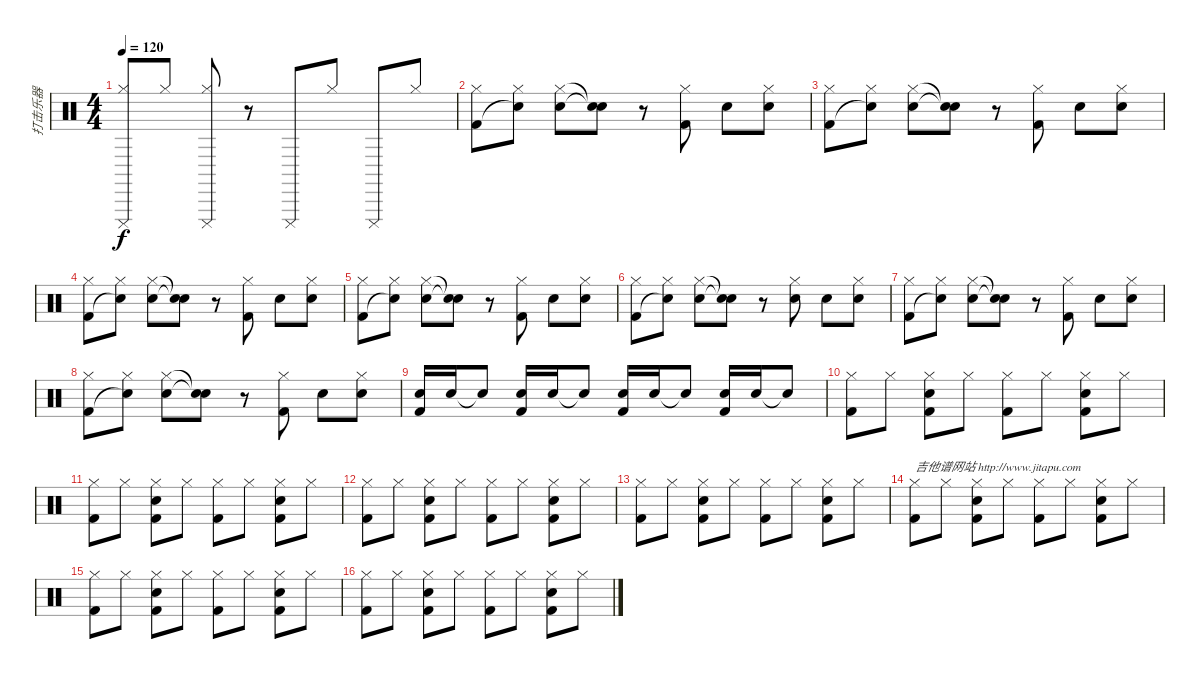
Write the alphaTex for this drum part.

\track ("打击乐器" "打击乐器") {instrument percussion}
\staff {score}
\articulation defaults
\ts (4 4)
\tempo 120
\clef neutral
\ks c
("Hi-Hat (closed)" "Cuica (mute)").8{dy f} "Hi-Hat (closed)".8 ("Hi-Hat (closed)" "Cuica (mute)").8 r.8 "Cuica (mute)".8 "Hi-Hat (closed)".8 "Cuica (mute)".8 "Hi-Hat (closed)".8 |
("Hi-Hat (closed)" "Kick (hit) 2").8 ("Hi-Hat (closed)" "Snare (hit)"{t}).8 ("Hi-Hat (closed)" "Snare (hit) 2").8 ("Snare (hit)"{t} "Snare (hit)"{t}).8 r.8 ("Hi-Hat (closed)" "Kick (hit) 2").8 "Snare (hit) 2".8 ("Hi-Hat (closed)" "Snare (hit) 2").8 |
("Hi-Hat (closed)" "Kick (hit) 2").8 ("Hi-Hat (closed)" "Snare (hit)"{t}).8 ("Hi-Hat (closed)" "Snare (hit) 2").8 ("Snare (hit)"{t} "Snare (hit)"{t}).8 r.8 ("Hi-Hat (closed)" "Kick (hit) 2").8 "Snare (hit) 2".8 ("Hi-Hat (closed)" "Snare (hit) 2").8 |
("Hi-Hat (closed)" "Kick (hit) 2").8 ("Hi-Hat (closed)" "Snare (hit)"{t}).8 ("Hi-Hat (closed)" "Snare (hit) 2").8 ("Snare (hit)"{t} "Snare (hit)"{t}).8 r.8 ("Hi-Hat (closed)" "Kick (hit) 2").8 "Snare (hit) 2".8 ("Hi-Hat (closed)" "Snare (hit) 2").8 |
("Hi-Hat (closed)" "Kick (hit) 2").8 ("Hi-Hat (closed)" "Snare (hit)"{t}).8 ("Hi-Hat (closed)" "Snare (hit) 2").8 ("Snare (hit)"{t} "Snare (hit)"{t}).8 r.8 ("Hi-Hat (closed)" "Kick (hit) 2").8 "Snare (hit) 2".8 ("Hi-Hat (closed)" "Snare (hit) 2").8 |
("Hi-Hat (closed)" "Kick (hit) 2").8 ("Hi-Hat (closed)" "Snare (hit)"{t}).8 ("Hi-Hat (closed)" "Snare (hit) 2").8 ("Snare (hit)"{t} "Snare (hit)"{t}).8 r.8 ("Hi-Hat (closed)" "Snare (hit) 2").8 "Snare (hit) 2".8 ("Hi-Hat (closed)" "Snare (hit) 2").8 |
("Hi-Hat (closed)" "Kick (hit) 2").8 ("Hi-Hat (closed)" "Snare (hit)"{t}).8 ("Hi-Hat (closed)" "Snare (hit) 2").8 ("Snare (hit)"{t} "Snare (hit)"{t}).8 r.8 ("Hi-Hat (closed)" "Kick (hit) 2").8 "Snare (hit) 2".8 ("Hi-Hat (closed)" "Snare (hit) 2").8 |
("Hi-Hat (closed)" "Kick (hit) 2").8 ("Hi-Hat (closed)" "Snare (hit)"{t}).8 ("Hi-Hat (closed)" "Snare (hit) 2").8 ("Snare (hit)"{t} "Snare (hit)"{t}).8 r.8 ("Hi-Hat (closed)" "Kick (hit) 2").8 "Snare (hit) 2".8 ("Hi-Hat (closed)" "Snare (hit) 2").8 |
("Snare (hit) 2" "Kick (hit) 2").16 "Snare (hit) 2".16 "Snare (hit) 2"{t}.8 ("Snare (hit) 2" "Kick (hit) 2").16 "Snare (hit) 2".16 "Snare (hit) 2"{t}.8 ("Snare (hit) 2" "Kick (hit) 2").16 "Snare (hit) 2".16 "Snare (hit) 2"{t}.8 ("Snare (hit) 2" "Kick (hit) 2").16 "Snare (hit) 2".16 "Snare (hit) 2"{t}.8 |
("Hi-Hat (closed)" "Kick (hit) 2").8 "Hi-Hat (closed)".8 ("Hi-Hat (closed)" "Snare (hit) 2" "Kick (hit) 2").8 "Hi-Hat (closed)".8 ("Hi-Hat (closed)" "Kick (hit) 2").8 "Hi-Hat (closed)".8 ("Hi-Hat (closed)" "Snare (hit) 2" "Kick (hit) 2").8 "Hi-Hat (closed)".8 |
("Hi-Hat (closed)" "Kick (hit) 2").8 "Hi-Hat (closed)".8 ("Hi-Hat (closed)" "Snare (hit) 2" "Kick (hit) 2").8 "Hi-Hat (closed)".8 ("Hi-Hat (closed)" "Kick (hit) 2").8 "Hi-Hat (closed)".8 ("Hi-Hat (closed)" "Snare (hit) 2" "Kick (hit) 2").8 "Hi-Hat (closed)".8 |
("Hi-Hat (closed)" "Kick (hit) 2").8 "Hi-Hat (closed)".8 ("Hi-Hat (closed)" "Snare (hit) 2" "Kick (hit) 2").8 "Hi-Hat (closed)".8 ("Hi-Hat (closed)" "Kick (hit) 2").8 "Hi-Hat (closed)".8 ("Hi-Hat (closed)" "Snare (hit) 2" "Kick (hit) 2").8 "Hi-Hat (closed)".8 |
("Hi-Hat (closed)" "Kick (hit) 2").8 "Hi-Hat (closed)".8 ("Hi-Hat (closed)" "Snare (hit) 2" "Kick (hit) 2").8 "Hi-Hat (closed)".8 ("Hi-Hat (closed)" "Kick (hit) 2").8 "Hi-Hat (closed)".8 ("Hi-Hat (closed)" "Snare (hit) 2" "Kick (hit) 2").8 "Hi-Hat (closed)".8 |
("Hi-Hat (closed)" "Kick (hit) 2").8{txt "吉他谱网站 http://www.jitapu.com"} "Hi-Hat (closed)".8 ("Hi-Hat (closed)" "Snare (hit) 2" "Kick (hit) 2").8 "Hi-Hat (closed)".8 ("Hi-Hat (closed)" "Kick (hit) 2").8 "Hi-Hat (closed)".8 ("Hi-Hat (closed)" "Snare (hit) 2" "Kick (hit) 2").8 "Hi-Hat (closed)".8 |
("Hi-Hat (closed)" "Kick (hit) 2").8 "Hi-Hat (closed)".8 ("Hi-Hat (closed)" "Snare (hit) 2" "Kick (hit) 2").8 "Hi-Hat (closed)".8 ("Hi-Hat (closed)" "Kick (hit) 2").8 "Hi-Hat (closed)".8 ("Hi-Hat (closed)" "Snare (hit) 2" "Kick (hit) 2").8 "Hi-Hat (closed)".8 |
("Hi-Hat (closed)" "Kick (hit) 2").8 "Hi-Hat (closed)".8 ("Hi-Hat (closed)" "Snare (hit) 2" "Kick (hit) 2").8 "Hi-Hat (closed)".8 ("Hi-Hat (closed)" "Kick (hit) 2").8 "Hi-Hat (closed)".8 ("Hi-Hat (closed)" "Snare (hit) 2" "Kick (hit) 2").8 "Hi-Hat (closed)".8
